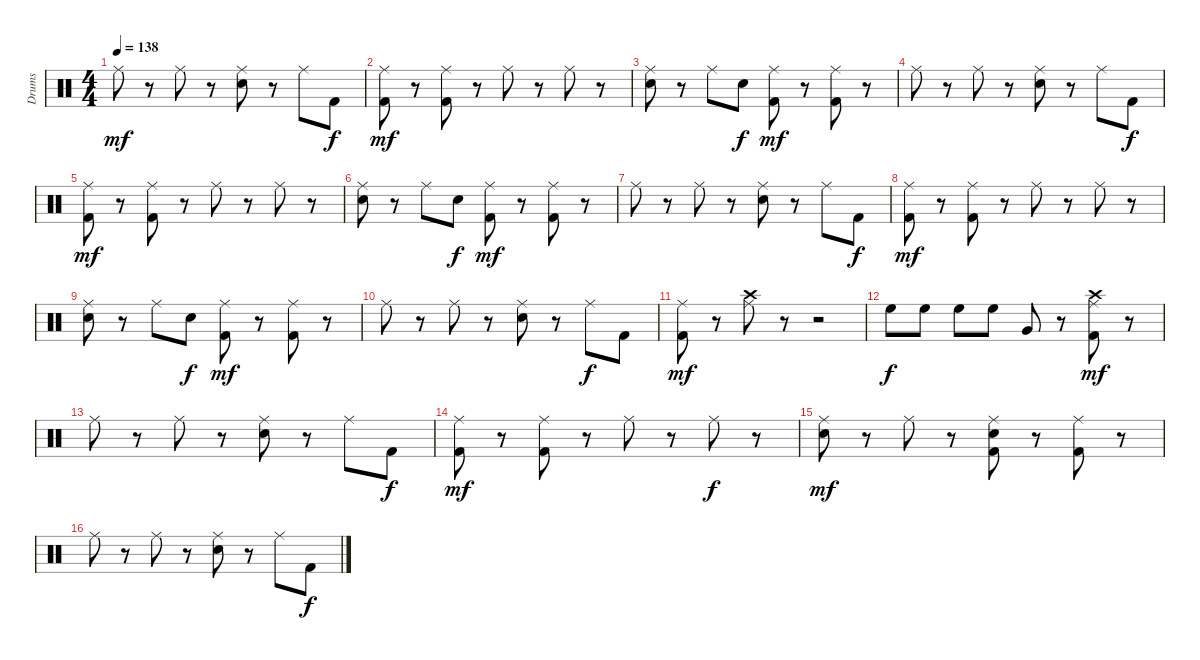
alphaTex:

\track ("Drums" "Drums") {instrument percussion}
\staff {score}
\articulation defaults
\ts (4 4)
\tempo 138
\clef neutral
\ks c "Ride (middle)".8{dy mf}
r.8 "Ride (middle)".8 r.8 ("Ride (middle)" "Snare (hit) 2").8 r.8 "Ride (middle)".8 "Kick (hit) 2".8{dy f} |
("Ride (middle)" "Kick (hit) 2").8{dy mf} r.8 ("Ride (middle)" "Kick (hit) 2").8 r.8 "Ride (middle)".8 r.8 "Ride (middle)".8 r.8 |
("Ride (middle)" "Snare (hit) 2").8 r.8 "Ride (middle)".8 "Snare (hit) 2".8{dy f} ("Ride (middle)" "Kick (hit) 2").8{dy mf} r.8 ("Ride (middle)" "Kick (hit) 2").8 r.8 |
"Ride (middle)".8 r.8 "Ride (middle)".8 r.8 ("Ride (middle)" "Snare (hit) 2").8 r.8 "Ride (middle)".8 "Kick (hit) 2".8{dy f} |
("Ride (middle)" "Kick (hit) 2").8{dy mf} r.8 ("Ride (middle)" "Kick (hit) 2").8 r.8 "Ride (middle)".8 r.8 "Ride (middle)".8 r.8 |
("Ride (middle)" "Snare (hit) 2").8 r.8 "Ride (middle)".8 "Snare (hit) 2".8{dy f} ("Ride (middle)" "Kick (hit) 2").8{dy mf} r.8 ("Ride (middle)" "Kick (hit) 2").8 r.8 |
"Ride (middle)".8 r.8 "Ride (middle)".8 r.8 ("Ride (middle)" "Snare (hit) 2").8 r.8 "Ride (middle)".8 "Kick (hit) 2".8{dy f} |
("Ride (middle)" "Kick (hit) 2").8{dy mf} r.8 ("Ride (middle)" "Kick (hit) 2").8 r.8 "Ride (middle)".8 r.8 "Ride (middle)".8 r.8 |
("Ride (middle)" "Snare (hit) 2").8 r.8 "Ride (middle)".8 "Snare (hit) 2".8{dy f} ("Ride (middle)" "Kick (hit) 2").8{dy mf} r.8 ("Ride (middle)" "Kick (hit) 2").8 r.8 |
"Ride (middle)".8 r.8 "Ride (middle)".8 r.8 ("Ride (middle)" "Snare (hit) 2").8 r.8 "Ride (middle)".8{dy f} "Kick (hit) 2".8 |
("Ride (middle)" "Kick (hit) 2").8{dy mf} r.8 ("Ride (middle)" "Crash high (hit)").8 r.8 r.2 |
"High Floor Tom (hit)".8{dy f} "High Floor Tom (hit)".8 "High Floor Tom (hit)".8 "High Floor Tom (hit)".8 "Very Low Tom (hit)".8 r.8 ("Ride (middle)" "Crash high (hit)" "Kick (hit) 2").8{dy mf} r.8 |
"Ride (middle)".8 r.8 "Ride (middle)".8 r.8 ("Ride (middle)" "Snare (hit) 2").8 r.8 "Ride (middle)".8 "Kick (hit) 2".8{dy f} |
("Ride (middle)" "Kick (hit) 2").8{dy mf} r.8 ("Ride (middle)" "Kick (hit) 2").8 r.8 "Ride (middle)".8 r.8 "Ride (middle)".8{dy f} r.8 |
("Ride (middle)" "Snare (hit) 2").8{dy mf} r.8 "Ride (middle)".8 r.8 ("Ride (middle)" "Snare (hit) 2" "Kick (hit) 2").8 r.8 ("Ride (middle)" "Kick (hit) 2").8 r.8 |
"Ride (middle)".8 r.8 "Ride (middle)".8 r.8 ("Ride (middle)" "Snare (hit) 2").8 r.8 "Ride (middle)".8 "Kick (hit) 2".8{dy f}
